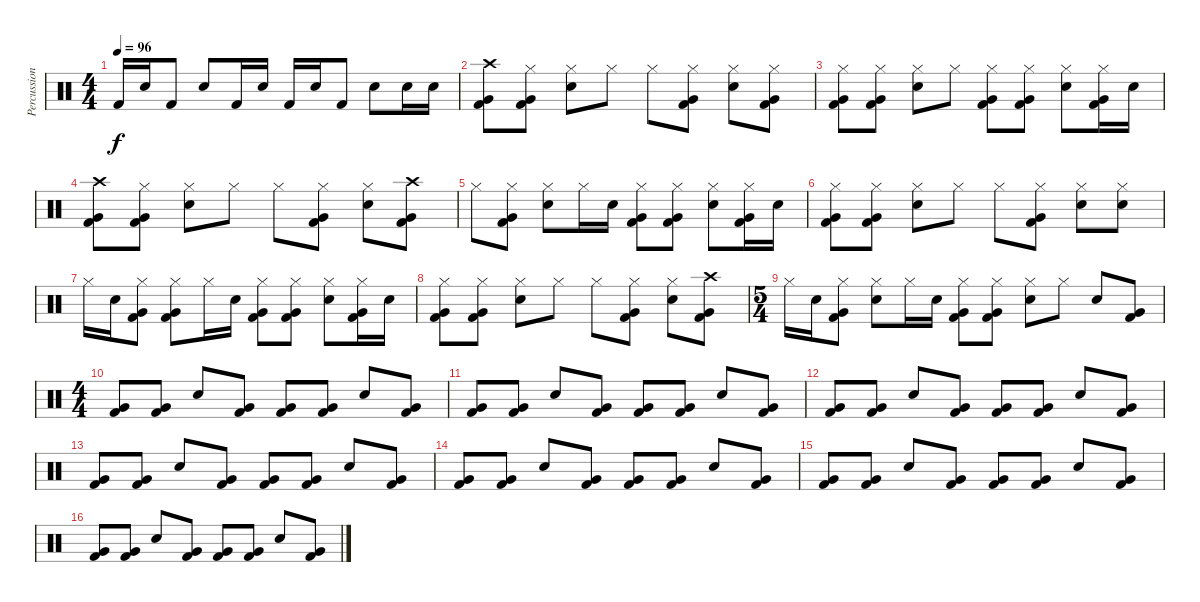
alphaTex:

\track ("Percussion" "Percussion") {instrument percussion}
\staff {score}
\articulation defaults
\ts (4 4)
\tempo 96
\clef neutral
\ks c "Kick (hit) 2".16{dy f} "Electric Snare (hit)".16 "Kick (hit) 2".8 "Electric Snare (hit)".8 "Kick (hit) 2".16 "Electric Snare (hit)".16 "Kick (hit) 2".16 "Electric Snare (hit)".16 "Kick (hit) 2".8 "Electric Snare (hit)".8 "Electric Snare (hit)".16 "Electric Snare (hit)".16
|
("Crash high (hit)" "Very Low Tom (hit)" "Kick (hit) 2").8 ("Hi-Hat (closed)" "Very Low Tom (hit)" "Kick (hit) 2").8 ("Hi-Hat (closed)" "Electric Snare (hit)").8 "Hi-Hat (closed)".8 "Hi-Hat (closed)".8 ("Hi-Hat (closed)" "Very Low Tom (hit)" "Kick (hit) 2").8 ("Hi-Hat (closed)" "Electric Snare (hit)").8 ("Hi-Hat (closed)" "Very Low Tom (hit)" "Kick (hit) 2").8 |
("Hi-Hat (closed)" "Very Low Tom (hit)" "Kick (hit) 2").8 ("Hi-Hat (closed)" "Very Low Tom (hit)" "Kick (hit) 2").8 ("Hi-Hat (closed)" "Electric Snare (hit)").8 "Hi-Hat (closed)".8 ("Hi-Hat (closed)" "Very Low Tom (hit)" "Kick (hit) 2").8 ("Hi-Hat (closed)" "Very Low Tom (hit)" "Kick (hit) 2").8 ("Hi-Hat (closed)" "Electric Snare (hit)").8 ("Hi-Hat (closed)" "Very Low Tom (hit)" "Kick (hit) 2").16 "Electric Snare (hit)".16 |
("Crash high (hit)" "Very Low Tom (hit)" "Kick (hit) 2").8 ("Hi-Hat (closed)" "Very Low Tom (hit)" "Kick (hit) 2").8 ("Hi-Hat (closed)" "Electric Snare (hit)").8 "Hi-Hat (closed)".8 "Hi-Hat (closed)".8 ("Hi-Hat (closed)" "Very Low Tom (hit)" "Kick (hit) 2").8 ("Hi-Hat (closed)" "Electric Snare (hit)").8 ("Crash high (hit)" "Very Low Tom (hit)" "Kick (hit) 2").8 |
"Hi-Hat (closed)".8 ("Hi-Hat (closed)" "Very Low Tom (hit)" "Kick (hit) 2").8 ("Hi-Hat (closed)" "Electric Snare (hit)").8 "Hi-Hat (closed)".16 "Electric Snare (hit)".16 ("Hi-Hat (closed)" "Very Low Tom (hit)" "Kick (hit) 2").8 ("Hi-Hat (closed)" "Very Low Tom (hit)" "Kick (hit) 2").8 ("Hi-Hat (closed)" "Electric Snare (hit)").8 ("Hi-Hat (closed)" "Very Low Tom (hit)" "Kick (hit) 2").16 "Electric Snare (hit)".16 |
("Hi-Hat (closed)" "Very Low Tom (hit)" "Kick (hit) 2").8 ("Hi-Hat (closed)" "Very Low Tom (hit)" "Kick (hit) 2").8 ("Hi-Hat (closed)" "Electric Snare (hit)").8 "Hi-Hat (closed)".8 "Hi-Hat (closed)".8 ("Hi-Hat (closed)" "Very Low Tom (hit)" "Kick (hit) 2").8 ("Hi-Hat (closed)" "Electric Snare (hit)").8 ("Hi-Hat (closed)" "Electric Snare (hit)").8 |
"Hi-Hat (closed)".16 "Electric Snare (hit)".16 ("Hi-Hat (closed)" "Very Low Tom (hit)" "Kick (hit) 2").8 ("Hi-Hat (closed)" "Very Low Tom (hit)" "Kick (hit) 2").8 "Hi-Hat (closed)".16 "Electric Snare (hit)".16 ("Hi-Hat (closed)" "Very Low Tom (hit)" "Kick (hit) 2").8 ("Hi-Hat (closed)" "Very Low Tom (hit)" "Kick (hit) 2").8 ("Hi-Hat (closed)" "Electric Snare (hit)").8 ("Hi-Hat (closed)" "Very Low Tom (hit)" "Kick (hit) 2").16 "Electric Snare (hit)".16 |
("Hi-Hat (closed)" "Very Low Tom (hit)" "Kick (hit) 2").8 ("Hi-Hat (closed)" "Very Low Tom (hit)" "Kick (hit) 2").8 ("Hi-Hat (closed)" "Electric Snare (hit)").8 "Hi-Hat (closed)".8 "Hi-Hat (closed)".8 ("Hi-Hat (closed)" "Very Low Tom (hit)" "Kick (hit) 2").8 ("Hi-Hat (closed)" "Electric Snare (hit)").8 ("Crash high (hit)" "Very Low Tom (hit)" "Kick (hit) 2").8 |
\ts (5 4)
"Hi-Hat (closed)".16 "Electric Snare (hit)".16 ("Hi-Hat (closed)" "Very Low Tom (hit)" "Kick (hit) 2").8 ("Hi-Hat (closed)" "Electric Snare (hit)").8 "Hi-Hat (closed)".16 "Electric Snare (hit)".16 ("Hi-Hat (closed)" "Very Low Tom (hit)" "Kick (hit) 2").8 ("Hi-Hat (closed)" "Very Low Tom (hit)" "Kick (hit) 2").8 ("Hi-Hat (closed)" "Electric Snare (hit)").8 "Hi-Hat (closed)".8 "Electric Snare (hit)".8 ("Very Low Tom (hit)" "Kick (hit) 2").8 |
\ts (4 4)
("Very Low Tom (hit)" "Kick (hit) 2").8 ("Very Low Tom (hit)" "Kick (hit) 2").8 "Electric Snare (hit)".8 ("Very Low Tom (hit)" "Kick (hit) 2").8 ("Very Low Tom (hit)" "Kick (hit) 2").8 ("Very Low Tom (hit)" "Kick (hit) 2").8 "Electric Snare (hit)".8 ("Very Low Tom (hit)" "Kick (hit) 2").8 |
("Very Low Tom (hit)" "Kick (hit) 2").8 ("Very Low Tom (hit)" "Kick (hit) 2").8 "Electric Snare (hit)".8 ("Very Low Tom (hit)" "Kick (hit) 2").8 ("Very Low Tom (hit)" "Kick (hit) 2").8 ("Very Low Tom (hit)" "Kick (hit) 2").8 "Electric Snare (hit)".8 ("Very Low Tom (hit)" "Kick (hit) 2").8 |
("Very Low Tom (hit)" "Kick (hit) 2").8 ("Very Low Tom (hit)" "Kick (hit) 2").8 "Electric Snare (hit)".8 ("Very Low Tom (hit)" "Kick (hit) 2").8 ("Very Low Tom (hit)" "Kick (hit) 2").8 ("Very Low Tom (hit)" "Kick (hit) 2").8 "Electric Snare (hit)".8 ("Very Low Tom (hit)" "Kick (hit) 2").8 |
("Very Low Tom (hit)" "Kick (hit) 2").8 ("Very Low Tom (hit)" "Kick (hit) 2").8 "Electric Snare (hit)".8 ("Very Low Tom (hit)" "Kick (hit) 2").8 ("Very Low Tom (hit)" "Kick (hit) 2").8 ("Very Low Tom (hit)" "Kick (hit) 2").8 "Electric Snare (hit)".8 ("Very Low Tom (hit)" "Kick (hit) 2").8 |
("Very Low Tom (hit)" "Kick (hit) 2").8 ("Very Low Tom (hit)" "Kick (hit) 2").8 "Electric Snare (hit)".8 ("Very Low Tom (hit)" "Kick (hit) 2").8 ("Very Low Tom (hit)" "Kick (hit) 2").8 ("Very Low Tom (hit)" "Kick (hit) 2").8 "Electric Snare (hit)".8 ("Very Low Tom (hit)" "Kick (hit) 2").8 |
("Very Low Tom (hit)" "Kick (hit) 2").8 ("Very Low Tom (hit)" "Kick (hit) 2").8 "Electric Snare (hit)".8 ("Very Low Tom (hit)" "Kick (hit) 2").8 ("Very Low Tom (hit)" "Kick (hit) 2").8 ("Very Low Tom (hit)" "Kick (hit) 2").8 "Electric Snare (hit)".8 ("Very Low Tom (hit)" "Kick (hit) 2").8 |
("Very Low Tom (hit)" "Kick (hit) 2").8 ("Very Low Tom (hit)" "Kick (hit) 2").8 "Electric Snare (hit)".8 ("Very Low Tom (hit)" "Kick (hit) 2").8 ("Very Low Tom (hit)" "Kick (hit) 2").8 ("Very Low Tom (hit)" "Kick (hit) 2").8 "Electric Snare (hit)".8 ("Very Low Tom (hit)" "Kick (hit) 2").8
